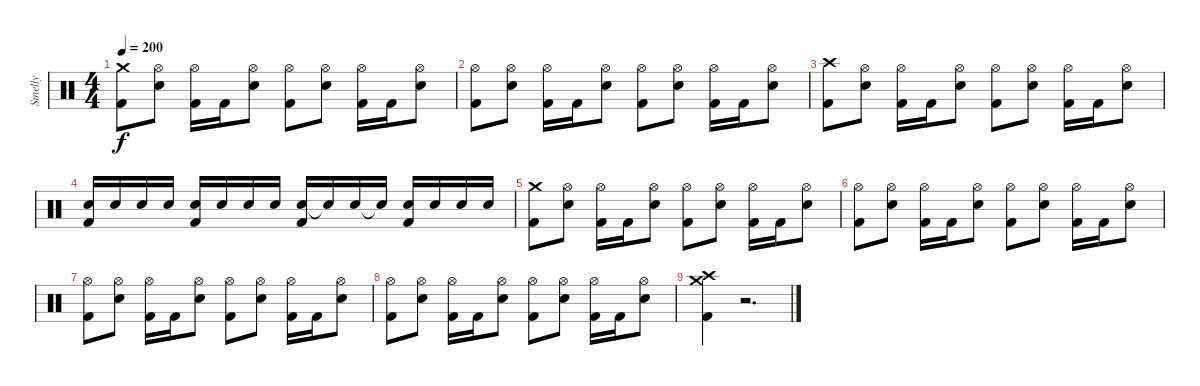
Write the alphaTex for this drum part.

\track ("Smelly" "Smelly") {instrument percussion}
\staff {score}
\articulation defaults
\ts (4 4)
\tempo 200
\clef neutral
\ks c
("Crash medium (hit)" "Kick (hit) 2").8{dy f} ("Hi-Hat (open)" "Electric Snare (hit)").8 ("Hi-Hat (open)" "Kick (hit) 2").16 "Kick (hit) 2".16 ("Hi-Hat (open)" "Electric Snare (hit)").8 ("Hi-Hat (open)" "Kick (hit) 2").8 ("Hi-Hat (open)" "Electric Snare (hit)").8 ("Hi-Hat (open)" "Kick (hit) 2").16 "Kick (hit) 2".16 ("Hi-Hat (open)" "Electric Snare (hit)").8 |
("Hi-Hat (open)" "Kick (hit) 2").8 ("Hi-Hat (open)" "Electric Snare (hit)").8 ("Hi-Hat (open)" "Kick (hit) 2").16 "Kick (hit) 2".16 ("Hi-Hat (open)" "Electric Snare (hit)").8 ("Hi-Hat (open)" "Kick (hit) 2").8 ("Hi-Hat (open)" "Electric Snare (hit)").8 ("Hi-Hat (open)" "Kick (hit) 2").16 "Kick (hit) 2".16 ("Hi-Hat (open)" "Electric Snare (hit)").8 |
("Crash high (hit)" "Kick (hit) 2").8 ("Hi-Hat (open)" "Electric Snare (hit)").8 ("Hi-Hat (open)" "Kick (hit) 2").16 "Kick (hit) 2".16 ("Hi-Hat (open)" "Electric Snare (hit)").8 ("Hi-Hat (open)" "Kick (hit) 2").8 ("Hi-Hat (open)" "Electric Snare (hit)").8 ("Hi-Hat (open)" "Kick (hit) 2").16 "Kick (hit) 2".16 ("Hi-Hat (open)" "Electric Snare (hit)").8 |
("Electric Snare (hit)" "Kick (hit) 2").16 "Electric Snare (hit)".16 "Electric Snare (hit)".16 "Electric Snare (hit)".16 ("Electric Snare (hit)" "Kick (hit) 2").16 "Electric Snare (hit)".16 "Electric Snare (hit)".16 "Electric Snare (hit)".16 ("Electric Snare (hit)" "Kick (hit) 2").16 "Electric Snare (hit)"{t}.16 "Electric Snare (hit)".16 "Electric Snare (hit)"{t}.16 ("Electric Snare (hit)" "Kick (hit) 2").16 "Electric Snare (hit)".16 "Electric Snare (hit)".16 "Electric Snare (hit)".16 |
("Crash medium (hit)" "Kick (hit) 2").8 ("Hi-Hat (open)" "Electric Snare (hit)").8 ("Hi-Hat (open)" "Kick (hit) 2").16 "Kick (hit) 2".16 ("Hi-Hat (open)" "Electric Snare (hit)").8 ("Hi-Hat (open)" "Kick (hit) 2").8 ("Hi-Hat (open)" "Electric Snare (hit)").8 ("Hi-Hat (open)" "Kick (hit) 2").16 "Kick (hit) 2".16 ("Hi-Hat (open)" "Electric Snare (hit)").8 |
("Hi-Hat (open)" "Kick (hit) 2").8 ("Hi-Hat (open)" "Electric Snare (hit)").8 ("Hi-Hat (open)" "Kick (hit) 2").16 "Kick (hit) 2".16 ("Hi-Hat (open)" "Electric Snare (hit)").8 ("Hi-Hat (open)" "Kick (hit) 2").8 ("Hi-Hat (open)" "Electric Snare (hit)").8 ("Hi-Hat (open)" "Kick (hit) 2").16 "Kick (hit) 2".16 ("Hi-Hat (open)" "Electric Snare (hit)").8 |
("Hi-Hat (open)" "Kick (hit) 2").8 ("Hi-Hat (open)" "Electric Snare (hit)").8 ("Hi-Hat (open)" "Kick (hit) 2").16 "Kick (hit) 2".16 ("Hi-Hat (open)" "Electric Snare (hit)").8 ("Hi-Hat (open)" "Kick (hit) 2").8 ("Hi-Hat (open)" "Electric Snare (hit)").8 ("Hi-Hat (open)" "Kick (hit) 2").16 "Kick (hit) 2".16 ("Hi-Hat (open)" "Electric Snare (hit)").8 |
("Hi-Hat (open)" "Kick (hit) 2").8 ("Hi-Hat (open)" "Electric Snare (hit)").8 ("Hi-Hat (open)" "Kick (hit) 2").16 "Kick (hit) 2".16 ("Hi-Hat (open)" "Electric Snare (hit)").8 ("Hi-Hat (open)" "Kick (hit) 2").8 ("Hi-Hat (open)" "Electric Snare (hit)").8 ("Hi-Hat (open)" "Kick (hit) 2").16 "Kick (hit) 2".16 ("Hi-Hat (open)" "Electric Snare (hit)").8 |
("Crash high (hit)" "Crash medium (hit)" "Kick (hit) 2").4 r.2{d}
